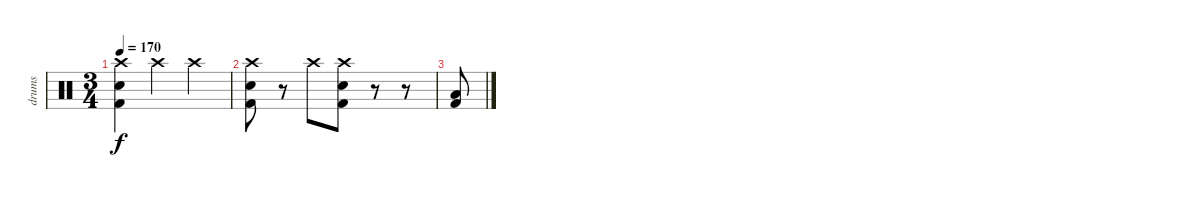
\track ("drums" "drums") {instrument percussion}
\staff {score}
\articulation defaults
\ts (3 4)
\tempo 170
\clef neutral
\ks c
("Kick (hit) 2" "Snare (hit) 2" "Crash high (hit)").4{dy f} "Crash high (hit)".4 "Crash high (hit)".4 |
("Kick (hit) 2" "Crash high (hit)" "Snare (hit) 2").8 r.8 "Crash high (hit)".8 ("Kick (hit) 2" "Crash high (hit)" "Snare (hit) 2").8 r.8 r.8 |
("Kick (hit) 2" "Low Floor Tom (hit)").8
